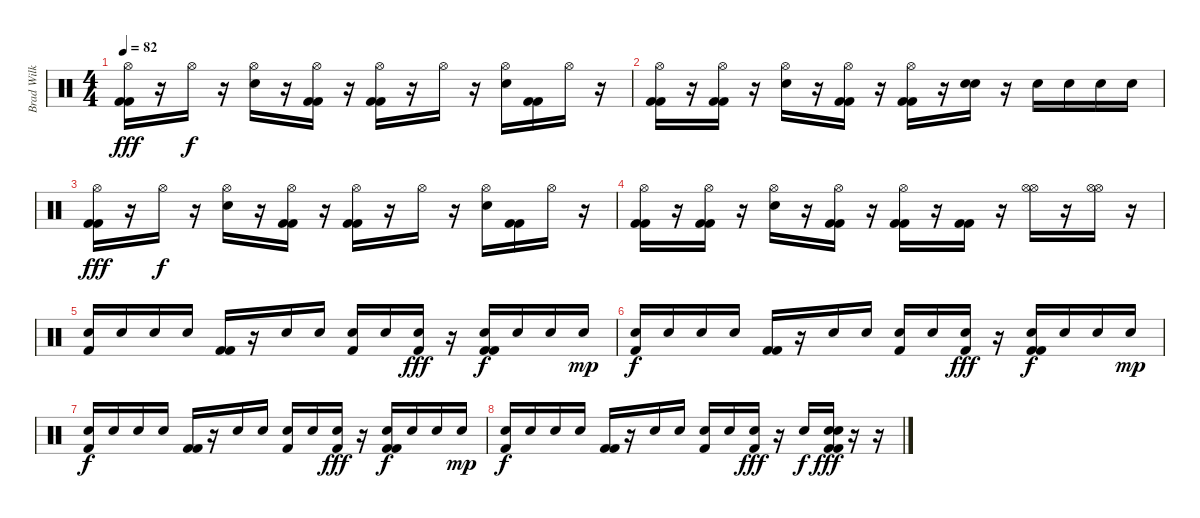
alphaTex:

\track ("Brad Wilk" "Brad Wilk") {instrument percussion}
\staff {score}
\articulation defaults
\ts (4 4)
\tempo 82
\clef neutral
\ks c
("Hi-Hat (open)" "Kick (hit) 2" "Kick (hit) 2").16{dy fff} r.16 "Hi-Hat (open)".16{dy f} r.16 ("Hi-Hat (open)" "Snare (hit) 2").16 r.16 ("Hi-Hat (open)" "Kick (hit) 2" "Kick (hit) 2").16 r.16 ("Hi-Hat (open)" "Kick (hit) 2" "Kick (hit) 2").16 r.16 "Hi-Hat (open)".16 r.16 ("Hi-Hat (open)" "Snare (hit) 2").16 ("Kick (hit) 2" "Kick (hit) 2").16 "Hi-Hat (open)".16 r.16 |
("Hi-Hat (open)" "Kick (hit) 2" "Kick (hit) 2").16 r.16 ("Hi-Hat (open)" "Kick (hit) 2" "Kick (hit) 2").16 r.16 ("Hi-Hat (open)" "Snare (hit) 2").16 r.16 ("Hi-Hat (open)" "Kick (hit) 2" "Kick (hit) 2").16 r.16 ("Hi-Hat (open)" "Kick (hit) 2" "Kick (hit) 2").16 r.16 ("Electric Snare (hit)" "Electric Snare (hit)").16{bd 240} r.16 "Electric Snare (hit)".16 "Electric Snare (hit)".16 "Electric Snare (hit)".16 "Electric Snare (hit)".16 |
("Hi-Hat (open)" "Kick (hit) 2" "Kick (hit) 2").16{dy fff} r.16 "Hi-Hat (open)".16{dy f} r.16 ("Hi-Hat (open)" "Snare (hit) 2").16 r.16 ("Hi-Hat (open)" "Kick (hit) 2" "Kick (hit) 2").16 r.16 ("Hi-Hat (open)" "Kick (hit) 2" "Kick (hit) 2").16 r.16 "Hi-Hat (open)".16 r.16 ("Hi-Hat (open)" "Snare (hit) 2").16 ("Kick (hit) 2" "Kick (hit) 2").16 "Hi-Hat (open)".16 r.16 |
("Hi-Hat (open)" "Kick (hit) 2" "Kick (hit) 2").16 r.16 ("Hi-Hat (open)" "Kick (hit) 2" "Kick (hit) 2").16 r.16 ("Hi-Hat (open)" "Snare (hit) 2").16 r.16 ("Hi-Hat (open)" "Kick (hit) 2" "Kick (hit) 2").16 r.16 ("Hi-Hat (open)" "Kick (hit) 2" "Kick (hit) 2").16 r.16 ("Kick (hit) 2" "Kick (hit) 2").16 r.16 ("Hi-Hat (open)" "Hi-Hat (open)").16 r.16 ("Hi-Hat (open)" "Hi-Hat (open)").16 r.16 |
("Electric Snare (hit)" "Kick (hit) 2").16 "Electric Snare (hit)".16 "Electric Snare (hit)".16 "Electric Snare (hit)".16 ("Kick (hit) 2" "Kick (hit) 2").16 r.16 "Electric Snare (hit)".16 "Electric Snare (hit)".16 ("Electric Snare (hit)" "Kick (hit) 2").16 "Electric Snare (hit)".16 ("Electric Snare (hit)" "Kick (hit) 2").16{dy fff} r.16 ("Electric Snare (hit)" "Kick (hit) 2" "Kick (hit) 2").16{dy f} "Electric Snare (hit)".16 "Electric Snare (hit)".16 "Electric Snare (hit)".16{dy mp} |
("Electric Snare (hit)" "Kick (hit) 2").16{dy f} "Electric Snare (hit)".16 "Electric Snare (hit)".16 "Electric Snare (hit)".16 ("Kick (hit) 2" "Kick (hit) 2").16 r.16 "Electric Snare (hit)".16 "Electric Snare (hit)".16 ("Electric Snare (hit)" "Kick (hit) 2").16 "Electric Snare (hit)".16 ("Electric Snare (hit)" "Kick (hit) 2").16{dy fff} r.16 ("Electric Snare (hit)" "Kick (hit) 2" "Kick (hit) 2").16{dy f} "Electric Snare (hit)".16 "Electric Snare (hit)".16 "Electric Snare (hit)".16{dy mp} |
("Electric Snare (hit)" "Kick (hit) 2").16{dy f} "Electric Snare (hit)".16 "Electric Snare (hit)".16 "Electric Snare (hit)".16 ("Kick (hit) 2" "Kick (hit) 2").16 r.16 "Electric Snare (hit)".16 "Electric Snare (hit)".16 ("Electric Snare (hit)" "Kick (hit) 2").16 "Electric Snare (hit)".16 ("Electric Snare (hit)" "Kick (hit) 2").16{dy fff} r.16 ("Electric Snare (hit)" "Kick (hit) 2" "Kick (hit) 2").16{dy f} "Electric Snare (hit)".16 "Electric Snare (hit)".16 "Electric Snare (hit)".16{dy mp} |
("Electric Snare (hit)" "Kick (hit) 2").16{dy f} "Electric Snare (hit)".16 "Electric Snare (hit)".16 "Electric Snare (hit)".16 ("Kick (hit) 2" "Kick (hit) 2").16 r.16 "Electric Snare (hit)".16 "Electric Snare (hit)".16 ("Electric Snare (hit)" "Kick (hit) 2").16 "Electric Snare (hit)".16 ("Electric Snare (hit)" "Kick (hit) 2").16{dy fff} r.16 "Electric Snare (hit)".16{dy f} ("Snare (hit) 2" "Snare (hit) 2" "Kick (hit) 2" "Kick (hit) 2").16{dy fff} r.16 r.16
